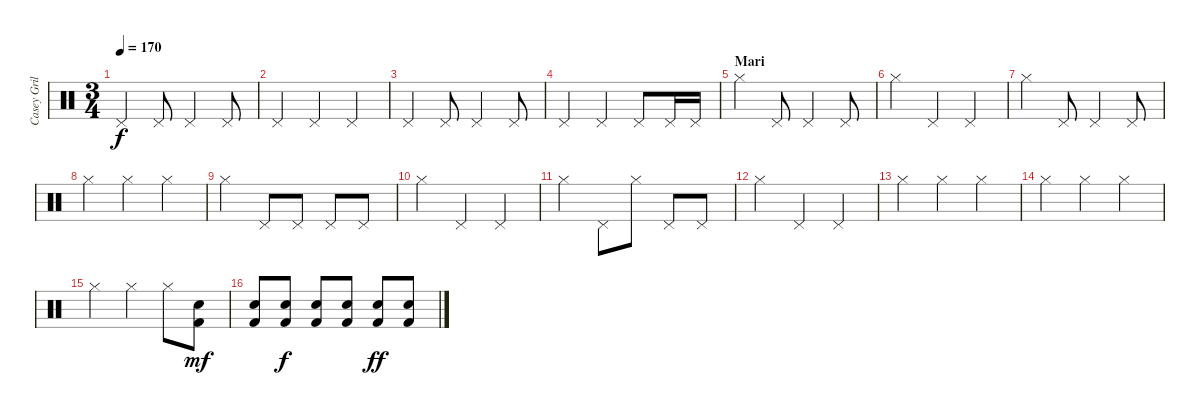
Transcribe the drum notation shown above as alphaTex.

\track ("Casey Grillo" "Casey Gril") {instrument percussion}
\staff {score}
\articulation defaults
\ts (3 4)
\tempo 170
\clef neutral
\ks c "Pedal Hi-Hat (hit)".4{dy f} "Pedal Hi-Hat (hit)".8 "Pedal Hi-Hat (hit)".4 "Pedal Hi-Hat (hit)".8
|
"Pedal Hi-Hat (hit)".4 "Pedal Hi-Hat (hit)".4 "Pedal Hi-Hat (hit)".4 |
"Pedal Hi-Hat (hit)".4 "Pedal Hi-Hat (hit)".8 "Pedal Hi-Hat (hit)".4 "Pedal Hi-Hat (hit)".8 |
"Pedal Hi-Hat (hit)".4 "Pedal Hi-Hat (hit)".4 "Pedal Hi-Hat (hit)".8 "Pedal Hi-Hat (hit)".16 "Pedal Hi-Hat (hit)".16 |
\section ("" "Mari")
"Hi-Hat (closed)".4 "Pedal Hi-Hat (hit)".8 "Pedal Hi-Hat (hit)".4 "Pedal Hi-Hat (hit)".8 |
"Hi-Hat (closed)".4 "Pedal Hi-Hat (hit)".4 "Pedal Hi-Hat (hit)".4 |
"Hi-Hat (closed)".4 "Pedal Hi-Hat (hit)".8 "Pedal Hi-Hat (hit)".4 "Pedal Hi-Hat (hit)".8 |
"Hi-Hat (closed)".4 "Hi-Hat (closed)".4 "Hi-Hat (closed)".4 |
"Hi-Hat (closed)".4 "Pedal Hi-Hat (hit)".8 "Pedal Hi-Hat (hit)".8 "Pedal Hi-Hat (hit)".8 "Pedal Hi-Hat (hit)".8 |
"Hi-Hat (closed)".4 "Pedal Hi-Hat (hit)".4 "Pedal Hi-Hat (hit)".4 |
"Hi-Hat (closed)".4 "Pedal Hi-Hat (hit)".8 "Hi-Hat (closed)".8 "Pedal Hi-Hat (hit)".8 "Pedal Hi-Hat (hit)".8 |
"Hi-Hat (closed)".4 "Pedal Hi-Hat (hit)".4 "Pedal Hi-Hat (hit)".4 |
"Hi-Hat (closed)".4 "Hi-Hat (closed)".4 "Hi-Hat (closed)".4 |
"Hi-Hat (closed)".4 "Hi-Hat (closed)".4 "Hi-Hat (closed)".4 |
"Hi-Hat (closed)".4 "Hi-Hat (closed)".4 "Hi-Hat (closed)".8 ("Snare (hit) 2" "Kick (hit) 2").8{dy mf} |
("Snare (hit) 2" "Kick (hit) 2").8 ("Snare (hit) 2" "Kick (hit) 2").8{dy f} ("Snare (hit) 2" "Kick (hit) 2").8 ("Snare (hit) 2" "Kick (hit) 2").8 ("Snare (hit) 2" "Kick (hit) 2").8{dy ff} ("Snare (hit) 2" "Kick (hit) 2").8
